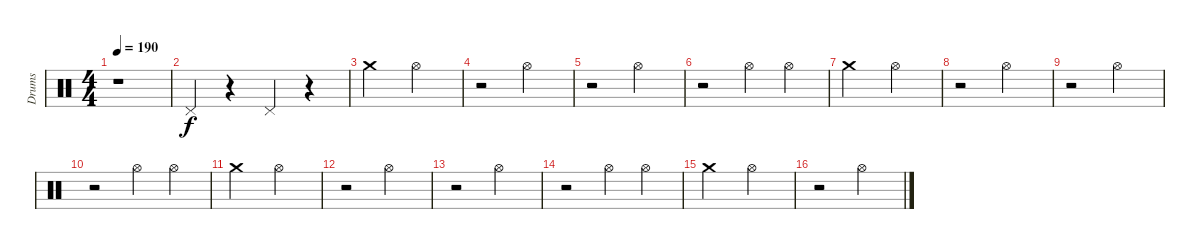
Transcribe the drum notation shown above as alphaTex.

\track ("Drums" "Drums") {instrument percussion}
\staff {score}
\articulation defaults
\ts (4 4)
\tempo 190
\clef neutral
\ks c
r.1{dy f} |
"Pedal Hi-Hat (hit)".4 r.4 "Pedal Hi-Hat (hit)".4 r.4 |
"Crash medium (hit)".2 "Hi-Hat (open)".2 |
r.2 "Hi-Hat (open)".2 |
r.2 "Hi-Hat (open)".2 |
r.2 "Hi-Hat (open)".4 "Hi-Hat (open)".4 |
"Crash medium (hit)".2 "Hi-Hat (open)".2 |
r.2 "Hi-Hat (open)".2 |
r.2 "Hi-Hat (open)".2 |
r.2 "Hi-Hat (open)".4 "Hi-Hat (open)".4 |
"Crash medium (hit)".2 "Hi-Hat (open)".2 |
r.2 "Hi-Hat (open)".2 |
r.2 "Hi-Hat (open)".2 |
r.2 "Hi-Hat (open)".4 "Hi-Hat (open)".4 |
"Crash medium (hit)".2 "Hi-Hat (open)".2 |
r.2 "Hi-Hat (open)".2
